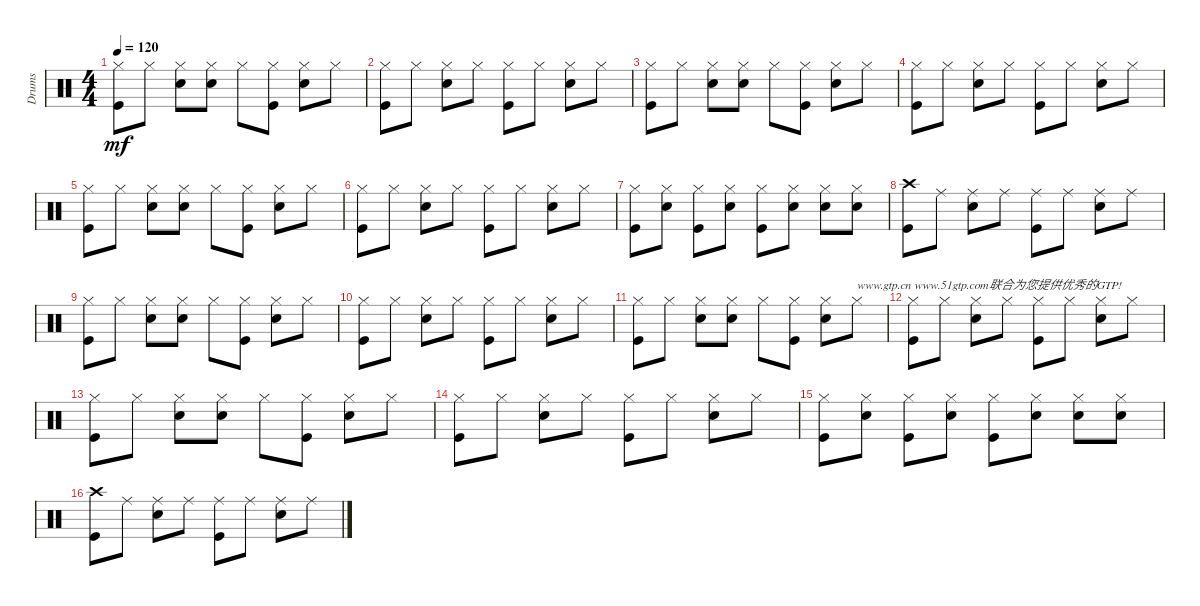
\track ("Drums" "Drums") {instrument percussion}
\staff {score}
\articulation defaults
\ts (4 4)
\tempo 120
\clef neutral
\ks c
("Hi-Hat (closed)" "Kick (hit)").8{dy mf} "Hi-Hat (closed)".8 ("Snare (hit) 2" "Hi-Hat (closed)").8 ("Snare (hit) 2" "Hi-Hat (closed)").8 "Hi-Hat (closed)".8 ("Hi-Hat (closed)" "Kick (hit)").8 ("Snare (hit) 2" "Hi-Hat (closed)").8 "Hi-Hat (closed)".8 |
("Hi-Hat (closed)" "Kick (hit)").8 "Hi-Hat (closed)".8 ("Snare (hit) 2" "Hi-Hat (closed)").8 "Hi-Hat (closed)".8 ("Hi-Hat (closed)" "Kick (hit)").8 "Hi-Hat (closed)".8 ("Snare (hit) 2" "Hi-Hat (closed)").8 "Hi-Hat (closed)".8 |
("Hi-Hat (closed)" "Kick (hit)").8 "Hi-Hat (closed)".8 ("Snare (hit) 2" "Hi-Hat (closed)").8 ("Snare (hit) 2" "Hi-Hat (closed)").8 "Hi-Hat (closed)".8 ("Hi-Hat (closed)" "Kick (hit)").8 ("Snare (hit) 2" "Hi-Hat (closed)").8 "Hi-Hat (closed)".8 |
("Hi-Hat (closed)" "Kick (hit)").8 "Hi-Hat (closed)".8 ("Snare (hit) 2" "Hi-Hat (closed)").8 "Hi-Hat (closed)".8 ("Hi-Hat (closed)" "Kick (hit)").8 "Hi-Hat (closed)".8 ("Snare (hit) 2" "Hi-Hat (closed)").8 "Hi-Hat (closed)".8 |
("Hi-Hat (closed)" "Kick (hit)").8 "Hi-Hat (closed)".8 ("Snare (hit) 2" "Hi-Hat (closed)").8 ("Snare (hit) 2" "Hi-Hat (closed)").8 "Hi-Hat (closed)".8 ("Hi-Hat (closed)" "Kick (hit)").8 ("Snare (hit) 2" "Hi-Hat (closed)").8 "Hi-Hat (closed)".8 |
("Kick (hit)" "Hi-Hat (closed)").8 "Hi-Hat (closed)".8 ("Snare (hit) 2" "Hi-Hat (closed)").8 "Hi-Hat (closed)".8 ("Kick (hit)" "Hi-Hat (closed)").8 "Hi-Hat (closed)".8 ("Snare (hit) 2" "Hi-Hat (closed)").8 "Hi-Hat (closed)".8 |
("Kick (hit)" "Hi-Hat (closed)").8 ("Snare (hit) 2" "Hi-Hat (closed)").8 ("Kick (hit)" "Hi-Hat (closed)").8 ("Snare (hit) 2" "Hi-Hat (closed)").8 ("Kick (hit)" "Hi-Hat (closed)").8 ("Snare (hit) 2" "Hi-Hat (closed)").8 ("Snare (hit) 2" "Hi-Hat (closed)").8 ("Snare (hit) 2" "Hi-Hat (closed)").8 |
("Crash high (hit)" "Kick (hit)").8 "Ride (middle)".8 ("Snare (hit) 2" "Ride (middle)").8 "Ride (middle)".8 ("Ride (middle)" "Kick (hit)").8 "Ride (middle)".8 ("Snare (hit) 2" "Ride (middle)").8 "Ride (middle)".8 |
("Hi-Hat (closed)" "Kick (hit)").8 "Hi-Hat (closed)".8 ("Snare (hit) 2" "Hi-Hat (closed)").8 ("Snare (hit) 2" "Hi-Hat (closed)").8 "Hi-Hat (closed)".8 ("Hi-Hat (closed)" "Kick (hit)").8 ("Snare (hit) 2" "Hi-Hat (closed)").8 "Hi-Hat (closed)".8 |
("Hi-Hat (closed)" "Kick (hit)").8 "Hi-Hat (closed)".8 ("Snare (hit) 2" "Hi-Hat (closed)").8 "Hi-Hat (closed)".8 ("Hi-Hat (closed)" "Kick (hit)").8 "Hi-Hat (closed)".8 ("Snare (hit) 2" "Hi-Hat (closed)").8 "Hi-Hat (closed)".8 |
("Hi-Hat (closed)" "Kick (hit)").8 "Hi-Hat (closed)".8 ("Snare (hit) 2" "Hi-Hat (closed)").8 ("Snare (hit) 2" "Hi-Hat (closed)").8 "Hi-Hat (closed)".8 ("Hi-Hat (closed)" "Kick (hit)").8 ("Snare (hit) 2" "Hi-Hat (closed)").8 "Hi-Hat (closed)".8{txt "www.gtp.cn www.51gtp.com联合为您提供优秀的GTP!"} |
("Hi-Hat (closed)" "Kick (hit)").8 "Hi-Hat (closed)".8 ("Snare (hit) 2" "Hi-Hat (closed)").8 "Hi-Hat (closed)".8 ("Hi-Hat (closed)" "Kick (hit)").8 "Hi-Hat (closed)".8 ("Snare (hit) 2" "Hi-Hat (closed)").8 "Hi-Hat (closed)".8 |
("Hi-Hat (closed)" "Kick (hit)").8 "Hi-Hat (closed)".8 ("Snare (hit) 2" "Hi-Hat (closed)").8 ("Snare (hit) 2" "Hi-Hat (closed)").8 "Hi-Hat (closed)".8 ("Hi-Hat (closed)" "Kick (hit)").8 ("Snare (hit) 2" "Hi-Hat (closed)").8 "Hi-Hat (closed)".8 |
("Kick (hit)" "Hi-Hat (closed)").8 "Hi-Hat (closed)".8 ("Snare (hit) 2" "Hi-Hat (closed)").8 "Hi-Hat (closed)".8 ("Kick (hit)" "Hi-Hat (closed)").8 "Hi-Hat (closed)".8 ("Snare (hit) 2" "Hi-Hat (closed)").8 "Hi-Hat (closed)".8 |
("Kick (hit)" "Hi-Hat (closed)").8 ("Snare (hit) 2" "Hi-Hat (closed)").8 ("Kick (hit)" "Hi-Hat (closed)").8 ("Snare (hit) 2" "Hi-Hat (closed)").8 ("Kick (hit)" "Hi-Hat (closed)").8 ("Snare (hit) 2" "Hi-Hat (closed)").8 ("Snare (hit) 2" "Hi-Hat (closed)").8 ("Snare (hit) 2" "Hi-Hat (closed)").8 |
("Kick (hit)" "Crash high (hit)").8 "Ride (middle)".8 ("Snare (hit) 2" "Ride (middle)").8 "Ride (middle)".8 ("Kick (hit)" "Ride (middle)").8 "Ride (middle)".8 ("Snare (hit) 2" "Ride (middle)").8 "Ride (middle)".8
